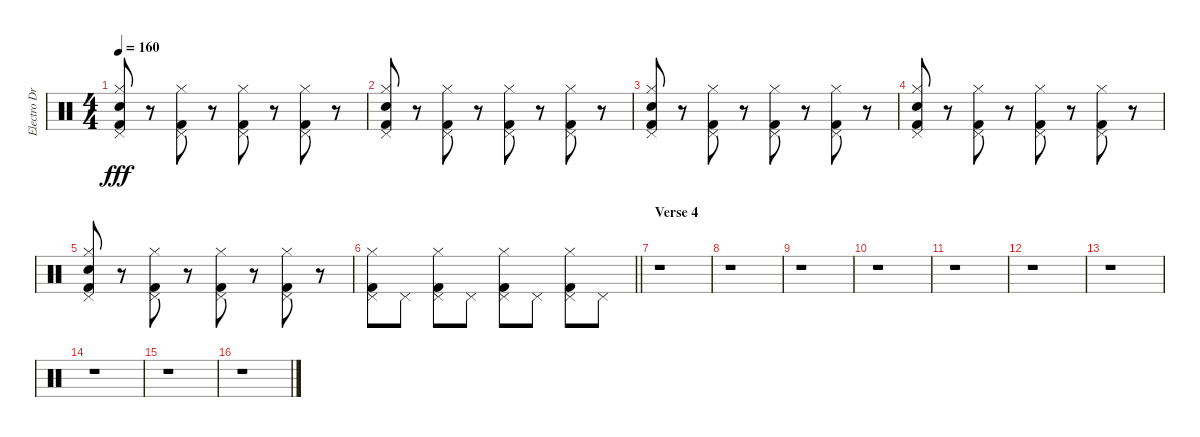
\track ("Electro Drums" "Electro Dr") {instrument percussion}
\staff {score}
\articulation defaults
\ts (4 4)
\tempo 160
\clef neutral
\ks c
("Kick (hit) 2" "Pedal Hi-Hat (hit)" "Hi-Hat (closed)" "Hand Clap (hit)").8{dy fff} r.8 ("Kick (hit) 2" "Pedal Hi-Hat (hit)" "Hi-Hat (closed)").8 r.8 ("Kick (hit) 2" "Pedal Hi-Hat (hit)" "Hi-Hat (closed)").8 r.8 ("Kick (hit) 2" "Pedal Hi-Hat (hit)" "Hi-Hat (closed)").8 r.8 |
("Kick (hit) 2" "Pedal Hi-Hat (hit)" "Hi-Hat (closed)" "Hand Clap (hit)").8 r.8 ("Kick (hit) 2" "Pedal Hi-Hat (hit)" "Hi-Hat (closed)").8 r.8 ("Kick (hit) 2" "Pedal Hi-Hat (hit)" "Hi-Hat (closed)").8 r.8 ("Kick (hit) 2" "Pedal Hi-Hat (hit)" "Hi-Hat (closed)").8 r.8 |
("Kick (hit) 2" "Pedal Hi-Hat (hit)" "Hi-Hat (closed)" "Hand Clap (hit)").8 r.8 ("Kick (hit) 2" "Pedal Hi-Hat (hit)" "Hi-Hat (closed)").8 r.8 ("Kick (hit) 2" "Pedal Hi-Hat (hit)" "Hi-Hat (closed)").8 r.8 ("Kick (hit) 2" "Pedal Hi-Hat (hit)" "Hi-Hat (closed)").8 r.8 |
("Kick (hit) 2" "Pedal Hi-Hat (hit)" "Hi-Hat (closed)" "Hand Clap (hit)").8 r.8 ("Kick (hit) 2" "Pedal Hi-Hat (hit)" "Hi-Hat (closed)").8 r.8 ("Kick (hit) 2" "Pedal Hi-Hat (hit)" "Hi-Hat (closed)").8 r.8 ("Kick (hit) 2" "Pedal Hi-Hat (hit)" "Hi-Hat (closed)").8 r.8 |
("Kick (hit) 2" "Pedal Hi-Hat (hit)" "Hi-Hat (closed)" "Hand Clap (hit)").8 r.8 ("Kick (hit) 2" "Pedal Hi-Hat (hit)" "Hi-Hat (closed)").8 r.8 ("Kick (hit) 2" "Pedal Hi-Hat (hit)" "Hi-Hat (closed)").8 r.8 ("Kick (hit) 2" "Pedal Hi-Hat (hit)" "Hi-Hat (closed)").8 r.8 |
\barLineRight lightlight
("Kick (hit) 2" "Pedal Hi-Hat (hit)" "Hi-Hat (closed)").8 "Pedal Hi-Hat (hit)".8 ("Kick (hit) 2" "Pedal Hi-Hat (hit)" "Hi-Hat (closed)").8 "Pedal Hi-Hat (hit)".8 ("Kick (hit) 2" "Pedal Hi-Hat (hit)" "Hi-Hat (closed)").8 "Pedal Hi-Hat (hit)".8 ("Kick (hit) 2" "Pedal Hi-Hat (hit)" "Hi-Hat (closed)").8 "Pedal Hi-Hat (hit)".8 |
\section ("" "Verse 4")
r.1 |
r.1 |
r.1 |
r.1 |
r.1 |
r.1 |
r.1 |
r.1 |
r.1 |
r.1
